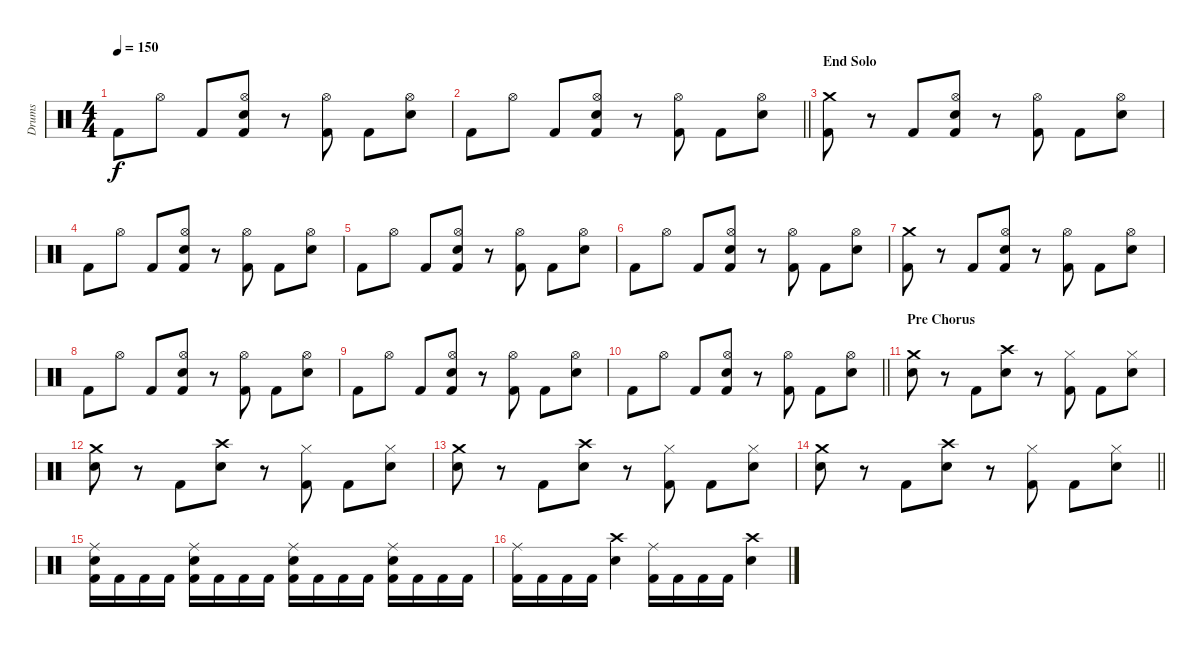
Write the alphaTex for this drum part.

\track ("Drums" "Drums") {instrument percussion}
\staff {score}
\articulation defaults
\ts (4 4)
\tempo 150
\clef neutral
\ks c "Kick (hit) 2".8{dy f} "Hi-Hat (open)".8 "Kick (hit) 2".8
("Hi-Hat (open)" "Snare (hit) 2" "Kick (hit) 2").8 r.8 ("Hi-Hat (open)" "Kick (hit) 2").8 "Kick (hit) 2".8 ("Hi-Hat (open)" "Snare (hit) 2").8 |
\barLineRight lightlight "Kick (hit) 2".8 "Hi-Hat (open)".8 "Kick (hit) 2".8
("Hi-Hat (open)" "Snare (hit) 2" "Kick (hit) 2").8 r.8 ("Hi-Hat (open)" "Kick (hit) 2").8 "Kick (hit) 2".8 ("Hi-Hat (open)" "Snare (hit) 2").8 |
\section ("" "End Solo")
("Crash medium (hit)" "Kick (hit) 2").8 r.8 "Kick (hit) 2".8 ("Hi-Hat (open)" "Snare (hit) 2" "Kick (hit) 2").8 r.8 ("Hi-Hat (open)" "Kick (hit) 2").8 "Kick (hit) 2".8 ("Hi-Hat (open)" "Snare (hit) 2").8 |
"Kick (hit) 2".8 "Hi-Hat (open)".8 "Kick (hit) 2".8 ("Hi-Hat (open)" "Snare (hit) 2" "Kick (hit) 2").8 r.8 ("Hi-Hat (open)" "Kick (hit) 2").8 "Kick (hit) 2".8 ("Hi-Hat (open)" "Snare (hit) 2").8 |
"Kick (hit) 2".8 "Hi-Hat (open)".8 "Kick (hit) 2".8 ("Hi-Hat (open)" "Snare (hit) 2" "Kick (hit) 2").8 r.8 ("Hi-Hat (open)" "Kick (hit) 2").8 "Kick (hit) 2".8 ("Hi-Hat (open)" "Snare (hit) 2").8 |
"Kick (hit) 2".8 "Hi-Hat (open)".8 "Kick (hit) 2".8 ("Hi-Hat (open)" "Snare (hit) 2" "Kick (hit) 2").8 r.8 ("Hi-Hat (open)" "Kick (hit) 2").8 "Kick (hit) 2".8 ("Hi-Hat (open)" "Snare (hit) 2").8 |
("Crash medium (hit)" "Kick (hit) 2").8 r.8 "Kick (hit) 2".8 ("Hi-Hat (open)" "Snare (hit) 2" "Kick (hit) 2").8 r.8 ("Hi-Hat (open)" "Kick (hit) 2").8 "Kick (hit) 2".8 ("Hi-Hat (open)" "Snare (hit) 2").8 |
"Kick (hit) 2".8 "Hi-Hat (open)".8 "Kick (hit) 2".8 ("Hi-Hat (open)" "Snare (hit) 2" "Kick (hit) 2").8 r.8 ("Hi-Hat (open)" "Kick (hit) 2").8 "Kick (hit) 2".8 ("Hi-Hat (open)" "Snare (hit) 2").8 |
"Kick (hit) 2".8 "Hi-Hat (open)".8 "Kick (hit) 2".8 ("Hi-Hat (open)" "Snare (hit) 2" "Kick (hit) 2").8 r.8 ("Hi-Hat (open)" "Kick (hit) 2").8 "Kick (hit) 2".8 ("Hi-Hat (open)" "Snare (hit) 2").8 |
\barLineRight lightlight "Kick (hit) 2".8 "Hi-Hat (open)".8 "Kick (hit) 2".8
("Hi-Hat (open)" "Snare (hit) 2" "Kick (hit) 2").8 r.8 ("Hi-Hat (open)" "Kick (hit) 2").8 "Kick (hit) 2".8 ("Hi-Hat (open)" "Snare (hit) 2").8 |
\section ("" "Pre Chorus")
("Crash medium (hit)" "Snare (hit) 2").8 r.8 "Kick (hit) 2".8 ("Crash high (hit)" "Snare (hit) 2").8 r.8 ("Hi-Hat (closed)" "Kick (hit) 2").8 "Kick (hit) 2".8 ("Hi-Hat (closed)" "Snare (hit) 2").8 |
("Crash medium (hit)" "Snare (hit) 2").8 r.8 "Kick (hit) 2".8 ("Crash high (hit)" "Snare (hit) 2").8 r.8 ("Hi-Hat (closed)" "Kick (hit) 2").8 "Kick (hit) 2".8 ("Hi-Hat (closed)" "Snare (hit) 2").8 |
("Crash medium (hit)" "Snare (hit) 2").8 r.8 "Kick (hit) 2".8 ("Crash high (hit)" "Snare (hit) 2").8 r.8 ("Hi-Hat (closed)" "Kick (hit) 2").8 "Kick (hit) 2".8 ("Hi-Hat (closed)" "Snare (hit) 2").8 |
\barLineRight lightlight
("Crash medium (hit)" "Snare (hit) 2").8 r.8 "Kick (hit) 2".8 ("Crash high (hit)" "Snare (hit) 2").8 r.8 ("Hi-Hat (closed)" "Kick (hit) 2").8 "Kick (hit) 2".8 ("Hi-Hat (closed)" "Snare (hit) 2").8 |
("Ride (middle)" "Snare (hit) 2" "Kick (hit) 2").16 "Kick (hit) 2".16 "Kick (hit) 2".16 "Kick (hit) 2".16 ("Ride (middle)" "Snare (hit) 2" "Kick (hit) 2").16 "Kick (hit) 2".16 "Kick (hit) 2".16 "Kick (hit) 2".16 ("Ride (middle)" "Snare (hit) 2" "Kick (hit) 2").16 "Kick (hit) 2".16 "Kick (hit) 2".16 "Kick (hit) 2".16 ("Ride (middle)" "Snare (hit) 2" "Kick (hit) 2").16 "Kick (hit) 2".16 "Kick (hit) 2".16 "Kick (hit) 2".16 |
("Ride (middle)" "Kick (hit) 2").16 "Kick (hit) 2".16 "Kick (hit) 2".16 "Kick (hit) 2".16 ("Crash high (hit)" "Snare (hit) 2").4 ("Ride (middle)" "Kick (hit) 2").16 "Kick (hit) 2".16 "Kick (hit) 2".16 "Kick (hit) 2".16 ("Crash high (hit)" "Snare (hit) 2").4
